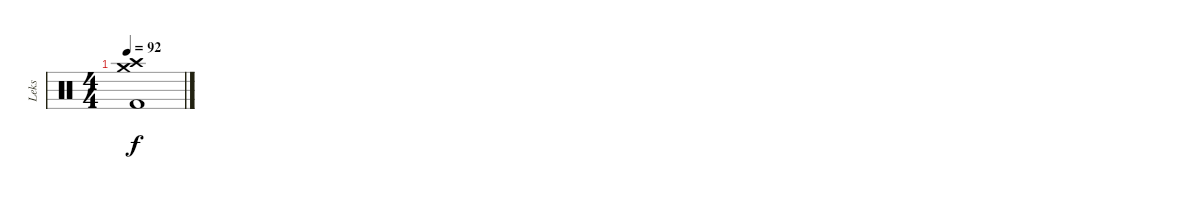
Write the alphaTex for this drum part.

\track ("Leks" "Leks") {instrument percussion}
\staff {score}
\articulation defaults
\ts (4 4)
\tempo 92
\clef neutral
\ks c
("Crash high (hit)" "Crash medium (hit)" "Kick (hit) 2").1{dy f}
